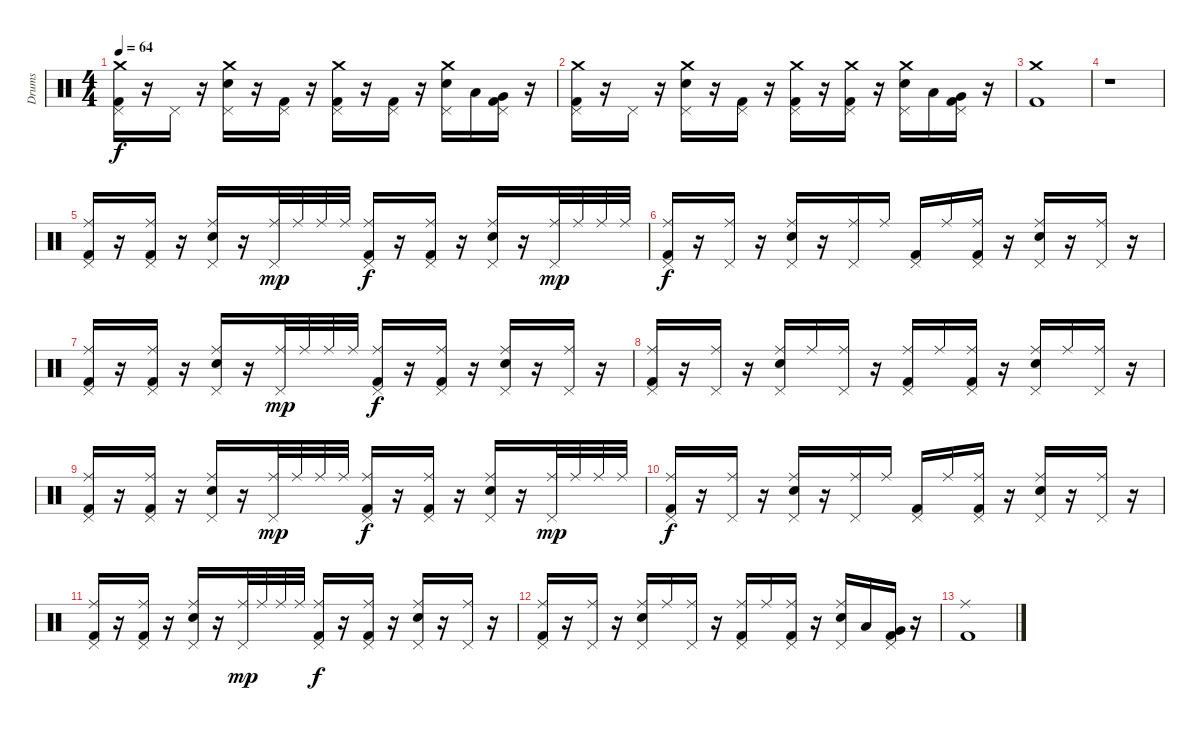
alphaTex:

\track ("Drums" "Drums") {instrument percussion}
\staff {score}
\articulation defaults
\ts (4 4)
\tempo 64
\clef neutral
\ks c
("Crash medium (hit)" "Pedal Hi-Hat (hit)" "Kick (hit) 2").16{dy f} r.16 "Pedal Hi-Hat (hit)".16 r.16 ("Crash medium (hit)" "Pedal Hi-Hat (hit)" "Snare (hit) 2").16 r.16 ("Pedal Hi-Hat (hit)" "Kick (hit) 2").16 r.16 ("Crash medium (hit)" "Pedal Hi-Hat (hit)" "Kick (hit) 2").16 r.16 ("Pedal Hi-Hat (hit)" "Kick (hit) 2").16 r.16 ("Crash medium (hit)" "Pedal Hi-Hat (hit)" "Snare (hit) 2").16 "Low Tom (hit)".16 ("Pedal Hi-Hat (hit)" "Very Low Tom (hit)" "Kick (hit) 2").16 r.16 |
("Crash medium (hit)" "Pedal Hi-Hat (hit)" "Kick (hit) 2").16 r.16 "Pedal Hi-Hat (hit)".16 r.16 ("Crash medium (hit)" "Pedal Hi-Hat (hit)" "Snare (hit) 2").16 r.16 ("Pedal Hi-Hat (hit)" "Kick (hit) 2").16 r.16 ("Crash medium (hit)" "Pedal Hi-Hat (hit)" "Kick (hit) 2").16 r.16 ("Crash medium (hit)" "Pedal Hi-Hat (hit)" "Kick (hit) 2").16 r.16 ("Crash medium (hit)" "Pedal Hi-Hat (hit)" "Snare (hit) 2").16 "Low Tom (hit)".16 ("Pedal Hi-Hat (hit)" "Very Low Tom (hit)" "Kick (hit) 2").16 r.16 |
("Crash medium (hit)" "Kick (hit) 2").1 |
r.1 |
("Ride (middle)" "Pedal Hi-Hat (hit)" "Kick (hit) 2").16{volume 7} r.16 ("Ride (middle)" "Pedal Hi-Hat (hit)" "Kick (hit) 2").16 r.16 ("Ride (middle)" "Pedal Hi-Hat (hit)" "Snare (hit) 2").16 r.16 ("Ride (middle)" "Pedal Hi-Hat (hit)").32{dy mp} "Ride (middle)".32 "Ride (middle)".32 "Ride (middle)".32 ("Ride (middle)" "Pedal Hi-Hat (hit)" "Kick (hit) 2").16{dy f} r.16 ("Ride (middle)" "Pedal Hi-Hat (hit)" "Kick (hit) 2").16 r.16 ("Ride (middle)" "Pedal Hi-Hat (hit)" "Snare (hit) 2").16 r.16 ("Ride (middle)" "Pedal Hi-Hat (hit)").32{dy mp} "Ride (middle)".32 "Ride (middle)".32 "Ride (middle)".32 |
("Ride (middle)" "Pedal Hi-Hat (hit)" "Kick (hit) 2").16{dy f} r.16 ("Ride (middle)" "Pedal Hi-Hat (hit)").16 r.16 ("Ride (middle)" "Pedal Hi-Hat (hit)" "Snare (hit) 2").16 r.16 ("Ride (middle)" "Pedal Hi-Hat (hit)").16 "Ride (middle)".16 ("Pedal Hi-Hat (hit)" "Kick (hit) 2").16 "Ride (middle)".16 ("Ride (middle)" "Pedal Hi-Hat (hit)" "Kick (hit) 2").16 r.16 ("Ride (middle)" "Pedal Hi-Hat (hit)" "Snare (hit) 2").16 r.16 ("Ride (middle)" "Pedal Hi-Hat (hit)").16 r.16 |
("Ride (middle)" "Pedal Hi-Hat (hit)" "Kick (hit) 2").16 r.16 ("Ride (middle)" "Pedal Hi-Hat (hit)" "Kick (hit) 2").16 r.16 ("Ride (middle)" "Pedal Hi-Hat (hit)" "Snare (hit) 2").16 r.16 ("Ride (middle)" "Pedal Hi-Hat (hit)").32{dy mp} "Ride (middle)".32 "Ride (middle)".32 "Ride (middle)".32 ("Ride (middle)" "Pedal Hi-Hat (hit)" "Kick (hit) 2").16{dy f} r.16 ("Ride (middle)" "Pedal Hi-Hat (hit)" "Kick (hit) 2").16 r.16 ("Ride (middle)" "Pedal Hi-Hat (hit)" "Snare (hit) 2").16 r.16 ("Ride (middle)" "Pedal Hi-Hat (hit)").16 r.16 |
("Ride (middle)" "Pedal Hi-Hat (hit)" "Kick (hit) 2").16 r.16 ("Ride (middle)" "Pedal Hi-Hat (hit)").16 r.16 ("Ride (middle)" "Pedal Hi-Hat (hit)" "Snare (hit) 2").16 "Ride (middle)".16 ("Ride (middle)" "Pedal Hi-Hat (hit)").16 r.16 ("Ride (middle)" "Pedal Hi-Hat (hit)" "Kick (hit) 2").16 "Ride (middle)".16 ("Ride (middle)" "Pedal Hi-Hat (hit)" "Kick (hit) 2").16 r.16 ("Ride (middle)" "Pedal Hi-Hat (hit)" "Snare (hit) 2").16 "Ride (middle)".16 ("Ride (middle)" "Pedal Hi-Hat (hit)").16 r.16 |
("Ride (middle)" "Pedal Hi-Hat (hit)" "Kick (hit) 2").16{volume 7} r.16 ("Ride (middle)" "Pedal Hi-Hat (hit)" "Kick (hit) 2").16 r.16 ("Ride (middle)" "Pedal Hi-Hat (hit)" "Snare (hit) 2").16 r.16 ("Ride (middle)" "Pedal Hi-Hat (hit)").32{dy mp} "Ride (middle)".32 "Ride (middle)".32 "Ride (middle)".32 ("Ride (middle)" "Pedal Hi-Hat (hit)" "Kick (hit) 2").16{dy f} r.16 ("Ride (middle)" "Pedal Hi-Hat (hit)" "Kick (hit) 2").16 r.16 ("Ride (middle)" "Pedal Hi-Hat (hit)" "Snare (hit) 2").16 r.16 ("Ride (middle)" "Pedal Hi-Hat (hit)").32{dy mp} "Ride (middle)".32 "Ride (middle)".32 "Ride (middle)".32 |
("Ride (middle)" "Pedal Hi-Hat (hit)" "Kick (hit) 2").16{dy f} r.16 ("Ride (middle)" "Pedal Hi-Hat (hit)").16 r.16 ("Ride (middle)" "Pedal Hi-Hat (hit)" "Snare (hit) 2").16 r.16 ("Ride (middle)" "Pedal Hi-Hat (hit)").16 "Ride (middle)".16 ("Pedal Hi-Hat (hit)" "Kick (hit) 2").16 "Ride (middle)".16 ("Ride (middle)" "Pedal Hi-Hat (hit)" "Kick (hit) 2").16 r.16 ("Ride (middle)" "Pedal Hi-Hat (hit)" "Snare (hit) 2").16 r.16 ("Ride (middle)" "Pedal Hi-Hat (hit)").16 r.16 |
("Ride (middle)" "Pedal Hi-Hat (hit)" "Kick (hit) 2").16 r.16 ("Ride (middle)" "Pedal Hi-Hat (hit)" "Kick (hit) 2").16 r.16 ("Ride (middle)" "Pedal Hi-Hat (hit)" "Snare (hit) 2").16 r.16 ("Ride (middle)" "Pedal Hi-Hat (hit)").32{dy mp} "Ride (middle)".32 "Ride (middle)".32 "Ride (middle)".32 ("Ride (middle)" "Pedal Hi-Hat (hit)" "Kick (hit) 2").16{dy f} r.16 ("Ride (middle)" "Pedal Hi-Hat (hit)" "Kick (hit) 2").16 r.16 ("Ride (middle)" "Pedal Hi-Hat (hit)" "Snare (hit) 2").16 r.16 ("Ride (middle)" "Pedal Hi-Hat (hit)").16 r.16 |
("Ride (middle)" "Pedal Hi-Hat (hit)" "Kick (hit) 2").16 r.16 ("Ride (middle)" "Pedal Hi-Hat (hit)").16 r.16 ("Ride (middle)" "Pedal Hi-Hat (hit)" "Snare (hit) 2").16 "Ride (middle)".16 ("Ride (middle)" "Pedal Hi-Hat (hit)").16 r.16 ("Ride (middle)" "Pedal Hi-Hat (hit)" "Kick (hit) 2").16 "Ride (middle)".16 ("Ride (middle)" "Pedal Hi-Hat (hit)" "Kick (hit) 2").16 r.16 ("Ride (middle)" "Pedal Hi-Hat (hit)" "Snare (hit) 2").16 "Low Tom (hit)".16 ("Pedal Hi-Hat (hit)" "Very Low Tom (hit)" "Kick (hit) 2").16 r.16 |
("Ride (middle)" "Kick (hit) 2").1
